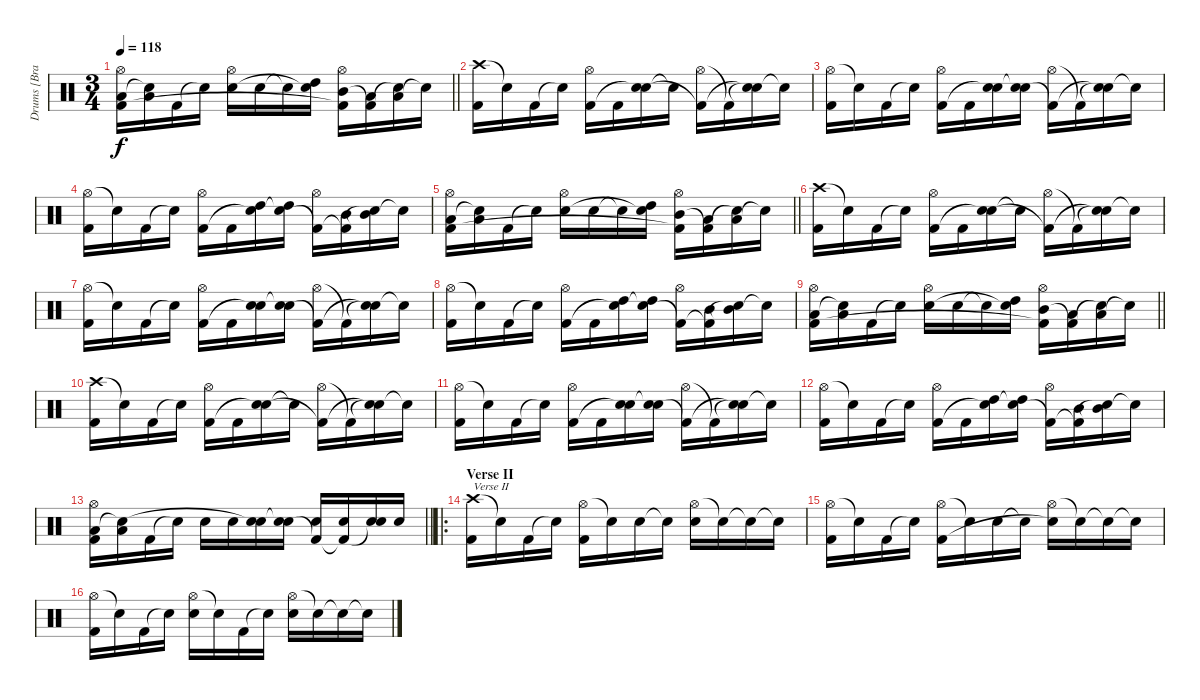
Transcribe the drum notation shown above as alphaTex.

\track ("Drums [Brann Dailor]" "Drums [Bra") {instrument percussion}
\staff {score}
\articulation defaults
\ts (3 4)
\tempo 118
\clef neutral
\barLineRight lightlight
\ks c
("Hi-Hat (open)" "Low Tom (hit)" "Kick (hit) 2").16{dy f} ("Low Tom (hit)" "Snare (hit)"{t}).16 "Kick (hit) 2".16 "Snare (hit)"{t}.16 ("Hi-Hat (open)" "Electric Snare (hit)").16 "Electric Snare (hit)".16 "Snare (hit)"{t}.16 ("High Tom (hit)" "Snare (hit)"{t}).16 ("Hi-Hat (open)" "Mid Tom (hit)" "Kick (hit) 2"{t}).16 ("Low Tom (hit)" "Kick (hit) 2"{t}).16 ("Low Tom (hit)" "Snare (hit)"{t}).16 "Snare (hit)"{t}.16 |
("Crash high (hit)" "Kick (hit) 2").16 "Snare (hit)"{t}.16 "Kick (hit) 2".16 "Snare (hit)"{t}.16 ("Hi-Hat (open)" "Kick (hit) 2").16 "Kick (hit) 2".16 ("Electric Snare (hit)" "Snare (hit)"{t}).16 "Snare (hit)"{t}.16 ("Hi-Hat (open)" "Kick (hit) 2"{t}).16 "Kick (hit) 2"{t}.16 ("Electric Snare (hit)"{t} "Snare (hit)"{t}).16 "Snare (hit)"{t}.16 |
("Hi-Hat (open)" "Kick (hit) 2").16 "Snare (hit)"{t}.16 "Kick (hit) 2".16 "Snare (hit)"{t}.16 ("Hi-Hat (open)" "Kick (hit) 2").16 "Kick (hit) 2".16 ("Electric Snare (hit)" "Snare (hit)"{t}).16 ("Electric Snare (hit)" "Snare (hit)"{t}).16 ("Hi-Hat (open)" "Kick (hit) 2"{t}).16 "Kick (hit) 2"{t}.16 ("Electric Snare (hit)"{t} "Snare (hit)"{t}).16 "Snare (hit)"{t}.16 |
("Hi-Hat (open)" "Kick (hit) 2").16 "Snare (hit)"{t}.16 "Kick (hit) 2".16 "Snare (hit)"{t}.16 ("Hi-Hat (open)" "Kick (hit) 2").16 "Kick (hit) 2".16 ("High Tom (hit)" "Snare (hit)"{t}).16 ("High Tom (hit)" "Snare (hit)"{t}).16 ("Hi-Hat (open)" "Kick (hit) 2"{t}).16 ("Mid Tom (hit)" "Kick (hit) 2"{t}).16 ("Mid Tom (hit)" "Snare (hit)"{t}).16 "Snare (hit)"{t}.16 |
\barLineRight lightlight
("Hi-Hat (open)" "Low Tom (hit)" "Kick (hit) 2").16 ("Low Tom (hit)" "Snare (hit)"{t}).16 "Kick (hit) 2".16 "Snare (hit)"{t}.16 ("Hi-Hat (open)" "Electric Snare (hit)").16 "Electric Snare (hit)".16 "Snare (hit)"{t}.16 ("High Tom (hit)" "Snare (hit)"{t}).16 ("Hi-Hat (open)" "Mid Tom (hit)" "Kick (hit) 2"{t}).16 ("Low Tom (hit)" "Kick (hit) 2"{t}).16 ("Low Tom (hit)" "Snare (hit)"{t}).16 "Snare (hit)"{t}.16 |
("Crash high (hit)" "Kick (hit) 2").16 "Snare (hit)"{t}.16 "Kick (hit) 2".16 "Snare (hit)"{t}.16 ("Hi-Hat (open)" "Kick (hit) 2").16 "Kick (hit) 2".16 ("Electric Snare (hit)" "Snare (hit)"{t}).16 "Snare (hit)"{t}.16 ("Hi-Hat (open)" "Kick (hit) 2"{t}).16 "Kick (hit) 2"{t}.16 ("Electric Snare (hit)"{t} "Snare (hit)"{t}).16 "Snare (hit)"{t}.16 |
("Hi-Hat (open)" "Kick (hit) 2").16 "Snare (hit)"{t}.16 "Kick (hit) 2".16 "Snare (hit)"{t}.16 ("Hi-Hat (open)" "Kick (hit) 2").16 "Kick (hit) 2".16 ("Electric Snare (hit)" "Snare (hit)"{t}).16 ("Electric Snare (hit)" "Snare (hit)"{t}).16 ("Hi-Hat (open)" "Kick (hit) 2"{t}).16 "Kick (hit) 2"{t}.16 ("Electric Snare (hit)"{t} "Snare (hit)"{t}).16 "Snare (hit)"{t}.16 |
("Hi-Hat (open)" "Kick (hit) 2").16 "Snare (hit)"{t}.16 "Kick (hit) 2".16 "Snare (hit)"{t}.16 ("Hi-Hat (open)" "Kick (hit) 2").16 "Kick (hit) 2".16 ("High Tom (hit)" "Snare (hit)"{t}).16 ("High Tom (hit)" "Snare (hit)"{t}).16 ("Hi-Hat (open)" "Kick (hit) 2"{t}).16 ("Mid Tom (hit)" "Kick (hit) 2"{t}).16 ("Mid Tom (hit)" "Snare (hit)"{t}).16 "Snare (hit)"{t}.16 |
\barLineRight lightlight
("Hi-Hat (open)" "Low Tom (hit)" "Kick (hit) 2").16 ("Low Tom (hit)" "Snare (hit)"{t}).16 "Kick (hit) 2".16 "Snare (hit)"{t}.16 ("Hi-Hat (open)" "Electric Snare (hit)").16 "Electric Snare (hit)".16 "Snare (hit)"{t}.16 ("High Tom (hit)" "Snare (hit)"{t}).16 ("Hi-Hat (open)" "Mid Tom (hit)" "Kick (hit) 2"{t}).16 ("Low Tom (hit)" "Kick (hit) 2"{t}).16 ("Low Tom (hit)" "Snare (hit)"{t}).16 "Snare (hit)"{t}.16 |
("Crash high (hit)" "Kick (hit) 2").16 "Snare (hit)"{t}.16 "Kick (hit) 2".16 "Snare (hit)"{t}.16 ("Hi-Hat (open)" "Kick (hit) 2").16 "Kick (hit) 2".16 ("Electric Snare (hit)" "Snare (hit)"{t}).16 "Snare (hit)"{t}.16 ("Hi-Hat (open)" "Kick (hit) 2"{t}).16 "Kick (hit) 2"{t}.16 ("Electric Snare (hit)"{t} "Snare (hit)"{t}).16 "Snare (hit)"{t}.16 |
("Hi-Hat (open)" "Kick (hit) 2").16 "Snare (hit)"{t}.16 "Kick (hit) 2".16 "Snare (hit)"{t}.16 ("Hi-Hat (open)" "Kick (hit) 2").16 "Kick (hit) 2".16 ("Electric Snare (hit)" "Snare (hit)"{t}).16 ("Electric Snare (hit)" "Snare (hit)"{t}).16 ("Hi-Hat (open)" "Kick (hit) 2"{t}).16 "Kick (hit) 2"{t}.16 ("Electric Snare (hit)"{t} "Snare (hit)"{t}).16 "Snare (hit)"{t}.16 |
("Hi-Hat (open)" "Kick (hit) 2").16 "Snare (hit)"{t}.16 "Kick (hit) 2".16 "Snare (hit)"{t}.16 ("Hi-Hat (open)" "Kick (hit) 2").16 "Kick (hit) 2".16 ("High Tom (hit)" "Snare (hit)"{t}).16 ("High Tom (hit)" "Snare (hit)"{t}).16 ("Hi-Hat (open)" "Kick (hit) 2"{t}).16 ("Mid Tom (hit)" "Kick (hit) 2"{t}).16 ("Mid Tom (hit)" "Snare (hit)"{t}).16 "Snare (hit)"{t}.16 |
\barLineRight lightlight
("Hi-Hat (open)" "Low Tom (hit)" "Kick (hit) 2").16 ("Low Tom (hit)" "Snare (hit)"{t}).16 "Kick (hit) 2".16 "Snare (hit)"{t}.16 "Electric Snare (hit)".16 "Electric Snare (hit)".16 ("Electric Snare (hit)" "Snare (hit)"{t}).16 ("Electric Snare (hit)" "Snare (hit)"{t}).16 ("Electric Snare (hit)" "Kick (hit) 2"{t}).16 ("Electric Snare (hit)" "Kick (hit) 2"{t}).16 ("Electric Snare (hit)" "Snare (hit)"{t}).16 "Electric Snare (hit)".16 |
\ro
\section ("" "Verse II")
("Crash high (hit)" "Kick (hit) 2").16{txt "Verse II"} "Snare (hit)"{t}.16 "Kick (hit) 2".16 "Snare (hit)"{t}.16 ("Hi-Hat (open)" "Kick (hit) 2").16 "Snare (hit)"{t}.16 "Electric Snare (hit)".16 "Snare (hit)"{t}.16 ("Hi-Hat (open)" "Electric Snare (hit)").16 "Snare (hit)"{t}.16 "Snare (hit)"{t}.16 "Snare (hit)"{t}.16 |
("Hi-Hat (open)" "Kick (hit) 2").16 "Snare (hit)"{t}.16 "Kick (hit) 2".16 "Snare (hit)"{t}.16 ("Hi-Hat (open)" "Kick (hit) 2").16 "Snare (hit)"{t}.16 "Electric Snare (hit)".16 "Snare (hit)"{t}.16 ("Hi-Hat (open)" "Electric Snare (hit)"{t}).16 "Snare (hit)"{t}.16 "Snare (hit)"{t}.16 "Snare (hit)"{t}.16 |
("Hi-Hat (open)" "Kick (hit) 2").16 "Snare (hit)"{t}.16 "Kick (hit) 2".16 "Snare (hit)"{t}.16 ("Hi-Hat (open)" "Electric Snare (hit)").16 "Snare (hit)"{t}.16 "Kick (hit) 2".16 "Snare (hit)"{t}.16 ("Hi-Hat (open)" "Electric Snare (hit)").16 "Snare (hit)"{t}.16 "Snare (hit)"{t}.16 "Snare (hit)"{t}.16
